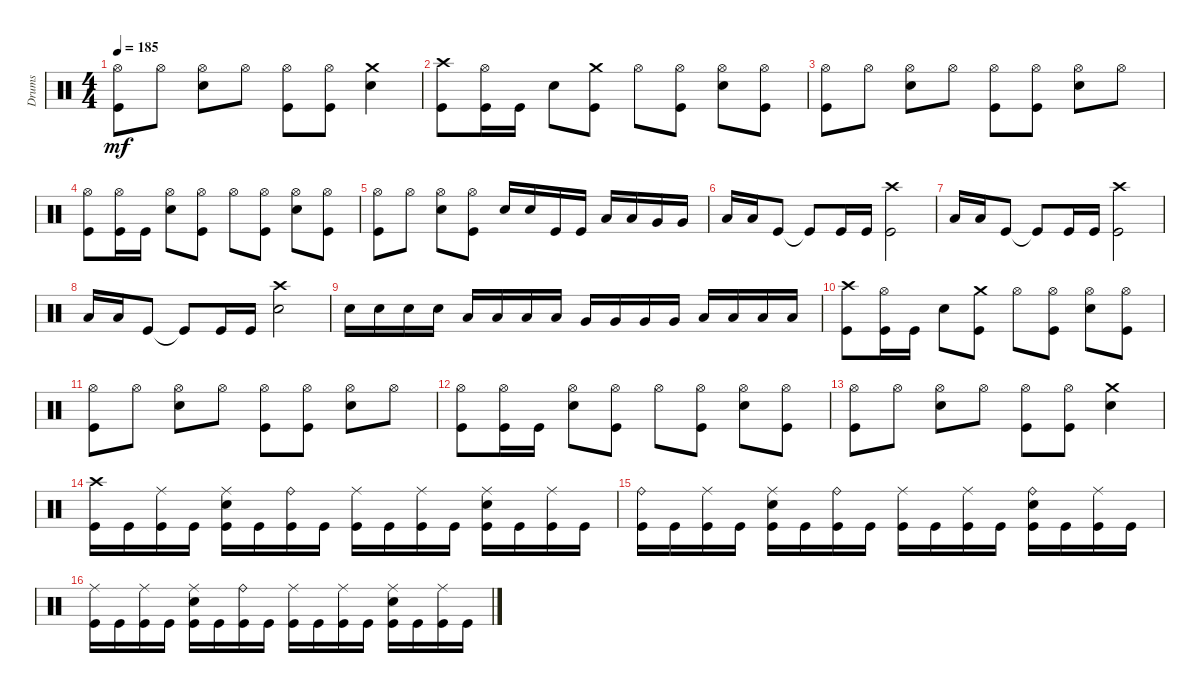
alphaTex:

\track ("Drums" "Drums") {instrument percussion}
\staff {score}
\articulation defaults
\ts (4 4)
\tempo 185
\clef neutral
\ks aminor
("Hi-Hat (open)" "Kick (hit)").8{dy mf} "Hi-Hat (open)".8 ("Hi-Hat (open)" "Snare (hit) 2").8 "Hi-Hat (open)".8 ("Hi-Hat (open)" "Kick (hit)").8 ("Kick (hit)" "Hi-Hat (open)").8 ("Snare (hit) 2" "Crash medium (hit)").4 |
("Crash high (hit)" "Kick (hit)").8 ("Hi-Hat (open)" "Kick (hit)").16 "Kick (hit)".16 "Snare (hit) 2".8 ("Kick (hit)" "Crash medium (hit)").8 "Hi-Hat (open)".8 ("Kick (hit)" "Hi-Hat (open)").8 ("Snare (hit) 2" "Hi-Hat (open)").8 ("Hi-Hat (open)" "Kick (hit)").8 |
("Kick (hit)" "Hi-Hat (open)").8 "Hi-Hat (open)".8 ("Hi-Hat (open)" "Snare (hit) 2").8 "Hi-Hat (open)".8 ("Kick (hit)" "Hi-Hat (open)").8 ("Kick (hit)" "Hi-Hat (open)").8 ("Snare (hit) 2" "Hi-Hat (open)").8 "Hi-Hat (open)".8 |
("Hi-Hat (open)" "Kick (hit)").8 ("Kick (hit)" "Hi-Hat (open)").16 "Kick (hit)".16 ("Snare (hit) 2" "Hi-Hat (open)").8 ("Hi-Hat (open)" "Kick (hit)").8 "Hi-Hat (open)".8 ("Kick (hit)" "Hi-Hat (open)").8 ("Snare (hit) 2" "Hi-Hat (open)").8 ("Kick (hit)" "Hi-Hat (open)").8 |
("Kick (hit)" "Hi-Hat (open)").8 "Hi-Hat (open)".8 ("Hi-Hat (open)" "Snare (hit) 2").8 ("Hi-Hat (open)" "Kick (hit)").8 "Snare (hit) 2".16 "Snare (hit) 2".16 "Kick (hit)".16 "Kick (hit)".16 "Low Tom (hit)".16 "Low Tom (hit)".16 "Very Low Tom (hit)".16 "Very Low Tom (hit)".16 |
"Low Floor Tom (hit)".16 "Low Floor Tom (hit)".16 "Kick (hit)".8 "Kick (hit)"{t}.8 "Kick (hit)".16 "Kick (hit)".16 ("Crash high (hit)" "Kick (hit)").2 |
"Low Floor Tom (hit)".16 "Low Floor Tom (hit)".16 "Kick (hit)".8 "Kick (hit)"{t}.8 "Kick (hit)".16 "Kick (hit)".16 ("Crash high (hit)" "Kick (hit)").2 |
"Low Floor Tom (hit)".16 "Low Floor Tom (hit)".16 "Kick (hit)".8 "Kick (hit)"{t}.8 "Kick (hit)".16 "Kick (hit)".16 ("Crash high (hit)" "Snare (hit) 2").2 |
"Snare (hit) 2".16 "Snare (hit) 2".16 "Snare (hit) 2".16 "Snare (hit) 2".16 "Low Tom (hit)".16 "Low Tom (hit)".16 "Low Tom (hit)".16 "Low Tom (hit)".16 "Very Low Tom (hit)".16 "Very Low Tom (hit)".16 "Very Low Tom (hit)".16 "Very Low Tom (hit)".16 "Low Floor Tom (hit)".16 "Low Floor Tom (hit)".16 "Low Floor Tom (hit)".16 "Low Floor Tom (hit)".16 |
("Kick (hit)" "Crash high (hit)").8 ("Kick (hit)" "Hi-Hat (open)").16 "Kick (hit)".16 "Snare (hit) 2".8 ("Crash medium (hit)" "Kick (hit)").8 "Hi-Hat (open)".8 ("Hi-Hat (open)" "Kick (hit)").8 ("Hi-Hat (open)" "Snare (hit) 2").8 ("Hi-Hat (open)" "Kick (hit)").8 |
("Kick (hit)" "Hi-Hat (open)").8 "Hi-Hat (open)".8 ("Snare (hit) 2" "Hi-Hat (open)").8 "Hi-Hat (open)".8 ("Hi-Hat (open)" "Kick (hit)").8 ("Hi-Hat (open)" "Kick (hit)").8 ("Snare (hit) 2" "Hi-Hat (open)").8 "Hi-Hat (open)".8 |
("Hi-Hat (open)" "Kick (hit)").8 ("Kick (hit)" "Hi-Hat (open)").16 "Kick (hit)".16 ("Hi-Hat (open)" "Snare (hit) 2").8 ("Kick (hit)" "Hi-Hat (open)").8 "Hi-Hat (open)".8 ("Kick (hit)" "Hi-Hat (open)").8 ("Hi-Hat (open)" "Snare (hit) 2").8 ("Kick (hit)" "Hi-Hat (open)").8 |
("Hi-Hat (open)" "Kick (hit)").8 "Hi-Hat (open)".8 ("Snare (hit) 2" "Hi-Hat (open)").8 "Hi-Hat (open)".8 ("Hi-Hat (open)" "Kick (hit)").8 ("Hi-Hat (open)" "Kick (hit)").8 ("Snare (hit) 2" "Crash medium (hit)").4 |
("Kick (hit)" "Crash high (hit)").16 "Kick (hit)".16 ("Kick (hit)" "Ride (middle)").16 "Kick (hit)".16 ("Snare (hit) 2" "Ride (middle)" "Kick (hit)").16 "Kick (hit)".16 ("Kick (hit)" "Ride (bell)").16 "Kick (hit)".16 ("Ride (middle)" "Kick (hit)").16 "Kick (hit)".16 ("Kick (hit)" "Ride (middle)").16 "Kick (hit)".16 ("Snare (hit) 2" "Ride (middle)" "Kick (hit)").16 "Kick (hit)".16 ("Ride (middle)" "Kick (hit)").16 "Kick (hit)".16 |
("Ride (bell)" "Kick (hit)").16 "Kick (hit)".16 ("Ride (middle)" "Kick (hit)").16 "Kick (hit)".16 ("Ride (middle)" "Kick (hit)" "Snare (hit) 2").16 "Kick (hit)".16 ("Ride (bell)" "Kick (hit)").16 "Kick (hit)".16 ("Ride (middle)" "Kick (hit)").16 "Kick (hit)".16 ("Kick (hit)" "Ride (middle)").16 "Kick (hit)".16 ("Ride (bell)" "Snare (hit) 2" "Kick (hit)").16 "Kick (hit)".16 ("Ride (middle)" "Kick (hit)").16 "Kick (hit)".16 |
("Kick (hit)" "Ride (middle)").16 "Kick (hit)".16 ("Ride (middle)" "Kick (hit)").16 "Kick (hit)".16 ("Ride (middle)" "Kick (hit)" "Snare (hit) 2").16 "Kick (hit)".16 ("Ride (bell)" "Kick (hit)").16 "Kick (hit)".16 ("Ride (middle)" "Kick (hit)").16 "Kick (hit)".16 ("Ride (middle)" "Kick (hit)").16 "Kick (hit)".16 ("Ride (middle)" "Kick (hit)" "Snare (hit) 2").16 "Kick (hit)".16 ("Ride (middle)" "Kick (hit)").16 "Kick (hit)".16
